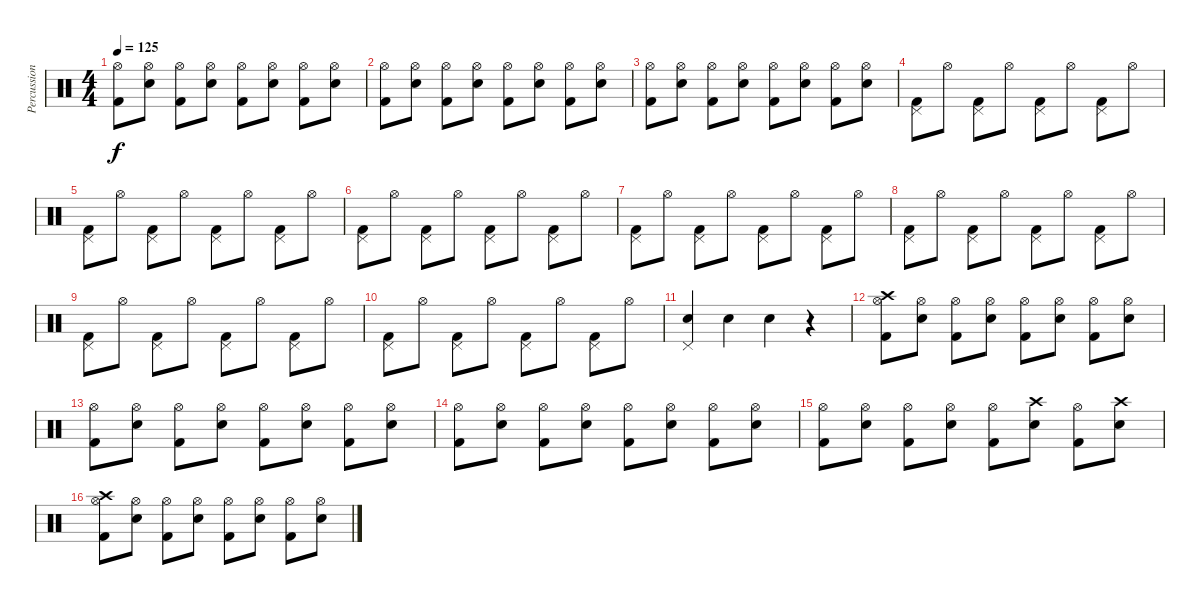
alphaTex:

\track ("Percussion" "Percussion") {instrument percussion}
\staff {score}
\articulation defaults
\ts (4 4)
\tempo 125
\clef neutral
\ks c
("Hi-Hat (open)" "Kick (hit) 2").8{dy f} ("Hi-Hat (open)" "Electric Snare (hit)").8 ("Hi-Hat (open)" "Kick (hit) 2").8 ("Hi-Hat (open)" "Electric Snare (hit)").8 ("Hi-Hat (open)" "Kick (hit) 2").8 ("Hi-Hat (open)" "Electric Snare (hit)").8 ("Hi-Hat (open)" "Kick (hit) 2").8 ("Hi-Hat (open)" "Electric Snare (hit)").8 |
("Hi-Hat (open)" "Kick (hit) 2").8 ("Hi-Hat (open)" "Electric Snare (hit)").8 ("Hi-Hat (open)" "Kick (hit) 2").8 ("Hi-Hat (open)" "Electric Snare (hit)").8 ("Hi-Hat (open)" "Kick (hit) 2").8 ("Hi-Hat (open)" "Electric Snare (hit)").8 ("Hi-Hat (open)" "Kick (hit) 2").8 ("Hi-Hat (open)" "Electric Snare (hit)").8 |
("Hi-Hat (open)" "Kick (hit) 2").8 ("Hi-Hat (open)" "Electric Snare (hit)").8 ("Hi-Hat (open)" "Kick (hit) 2").8 ("Hi-Hat (open)" "Electric Snare (hit)").8 ("Hi-Hat (open)" "Kick (hit) 2").8 ("Hi-Hat (open)" "Electric Snare (hit)").8 ("Hi-Hat (open)" "Kick (hit) 2").8 ("Hi-Hat (open)" "Electric Snare (hit)").8 |
("Pedal Hi-Hat (hit)" "Kick (hit) 2").8 "Hi-Hat (open)".8 ("Pedal Hi-Hat (hit)" "Kick (hit) 2").8 "Hi-Hat (open)".8 ("Pedal Hi-Hat (hit)" "Kick (hit) 2").8 "Hi-Hat (open)".8 ("Pedal Hi-Hat (hit)" "Kick (hit) 2").8 "Hi-Hat (open)".8 |
("Pedal Hi-Hat (hit)" "Kick (hit) 2").8 "Hi-Hat (open)".8 ("Pedal Hi-Hat (hit)" "Kick (hit) 2").8 "Hi-Hat (open)".8 ("Pedal Hi-Hat (hit)" "Kick (hit) 2").8 "Hi-Hat (open)".8 ("Pedal Hi-Hat (hit)" "Kick (hit) 2").8 "Hi-Hat (open)".8 |
("Pedal Hi-Hat (hit)" "Kick (hit) 2").8 "Hi-Hat (open)".8 ("Pedal Hi-Hat (hit)" "Kick (hit) 2").8 "Hi-Hat (open)".8 ("Pedal Hi-Hat (hit)" "Kick (hit) 2").8 "Hi-Hat (open)".8 ("Pedal Hi-Hat (hit)" "Kick (hit) 2").8 "Hi-Hat (open)".8 |
("Pedal Hi-Hat (hit)" "Kick (hit) 2").8 "Hi-Hat (open)".8 ("Pedal Hi-Hat (hit)" "Kick (hit) 2").8 "Hi-Hat (open)".8 ("Pedal Hi-Hat (hit)" "Kick (hit) 2").8 "Hi-Hat (open)".8 ("Pedal Hi-Hat (hit)" "Kick (hit) 2").8 "Hi-Hat (open)".8 |
("Pedal Hi-Hat (hit)" "Kick (hit) 2").8 "Hi-Hat (open)".8 ("Pedal Hi-Hat (hit)" "Kick (hit) 2").8 "Hi-Hat (open)".8 ("Pedal Hi-Hat (hit)" "Kick (hit) 2").8 "Hi-Hat (open)".8 ("Pedal Hi-Hat (hit)" "Kick (hit) 2").8 "Hi-Hat (open)".8 |
("Pedal Hi-Hat (hit)" "Kick (hit) 2").8 "Hi-Hat (open)".8 ("Pedal Hi-Hat (hit)" "Kick (hit) 2").8 "Hi-Hat (open)".8 ("Pedal Hi-Hat (hit)" "Kick (hit) 2").8 "Hi-Hat (open)".8 ("Pedal Hi-Hat (hit)" "Kick (hit) 2").8 "Hi-Hat (open)".8 |
("Pedal Hi-Hat (hit)" "Kick (hit) 2").8 "Hi-Hat (open)".8 ("Pedal Hi-Hat (hit)" "Kick (hit) 2").8 "Hi-Hat (open)".8 ("Pedal Hi-Hat (hit)" "Kick (hit) 2").8 "Hi-Hat (open)".8 ("Pedal Hi-Hat (hit)" "Kick (hit) 2").8 "Hi-Hat (open)".8 |
("Pedal Hi-Hat (hit)" "Electric Snare (hit)").4 "Electric Snare (hit)".4 "Electric Snare (hit)".4 r.4 |
("Hi-Hat (open)" "Crash high (hit)" "Kick (hit) 2").8 ("Hi-Hat (open)" "Electric Snare (hit)").8 ("Hi-Hat (open)" "Kick (hit) 2").8 ("Hi-Hat (open)" "Electric Snare (hit)").8 ("Hi-Hat (open)" "Kick (hit) 2").8 ("Hi-Hat (open)" "Electric Snare (hit)").8 ("Hi-Hat (open)" "Kick (hit) 2").8 ("Hi-Hat (open)" "Electric Snare (hit)").8 |
("Hi-Hat (open)" "Kick (hit) 2").8 ("Hi-Hat (open)" "Electric Snare (hit)").8 ("Hi-Hat (open)" "Kick (hit) 2").8 ("Hi-Hat (open)" "Electric Snare (hit)").8 ("Hi-Hat (open)" "Kick (hit) 2").8 ("Hi-Hat (open)" "Electric Snare (hit)").8 ("Hi-Hat (open)" "Kick (hit) 2").8 ("Hi-Hat (open)" "Electric Snare (hit)").8 |
("Hi-Hat (open)" "Kick (hit) 2").8 ("Hi-Hat (open)" "Electric Snare (hit)").8 ("Hi-Hat (open)" "Kick (hit) 2").8 ("Hi-Hat (open)" "Electric Snare (hit)").8 ("Hi-Hat (open)" "Kick (hit) 2").8 ("Hi-Hat (open)" "Electric Snare (hit)").8 ("Hi-Hat (open)" "Kick (hit) 2").8 ("Hi-Hat (open)" "Electric Snare (hit)").8 |
("Hi-Hat (open)" "Kick (hit) 2").8 ("Hi-Hat (open)" "Electric Snare (hit)").8 ("Hi-Hat (open)" "Kick (hit) 2").8 ("Hi-Hat (open)" "Electric Snare (hit)").8 ("Hi-Hat (open)" "Kick (hit) 2").8 ("Crash high (hit)" "Electric Snare (hit)").8 ("Hi-Hat (open)" "Kick (hit) 2").8 ("Crash high (hit)" "Electric Snare (hit)").8 |
("Hi-Hat (open)" "Crash high (hit)" "Kick (hit) 2").8 ("Hi-Hat (open)" "Electric Snare (hit)").8 ("Hi-Hat (open)" "Kick (hit) 2").8 ("Hi-Hat (open)" "Electric Snare (hit)").8 ("Hi-Hat (open)" "Kick (hit) 2").8 ("Hi-Hat (open)" "Electric Snare (hit)").8 ("Hi-Hat (open)" "Kick (hit) 2").8 ("Hi-Hat (open)" "Electric Snare (hit)").8
